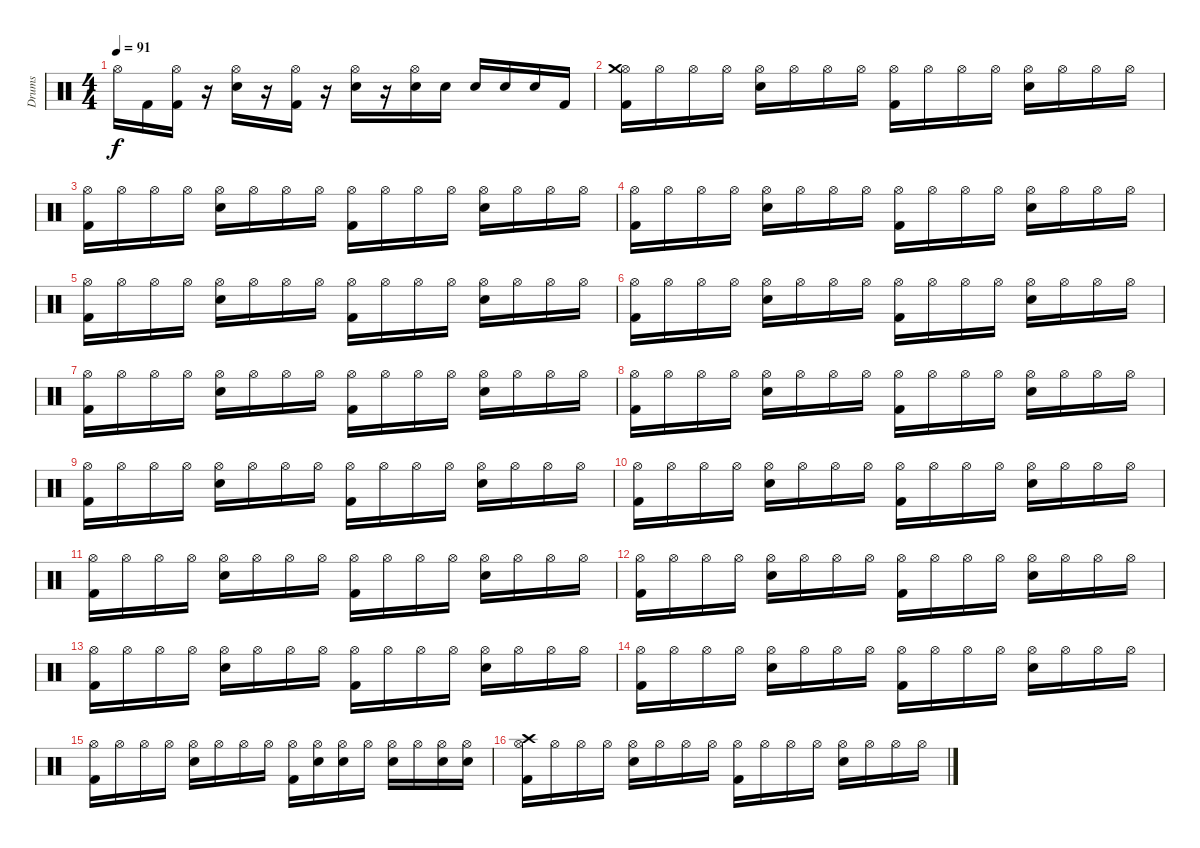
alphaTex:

\track ("Drums" "Drums") {instrument percussion}
\staff {score}
\articulation defaults
\ts (4 4)
\tempo 91
\clef neutral
\ks c "Hi-Hat (open)".16{dy f} "Kick (hit) 2".16
("Hi-Hat (open)" "Kick (hit) 2").16 r.16 ("Hi-Hat (open)" "Snare (hit) 2").16 r.16 ("Kick (hit) 2" "Hi-Hat (open)").16 r.16 ("Snare (hit) 2" "Hi-Hat (open)").16 r.16 ("Snare (hit) 2" "Hi-Hat (open)").16 "Snare (hit) 2".16 "Snare (hit) 2".16 "Snare (hit) 2".16 "Snare (hit) 2".16 "Kick (hit) 2".16 |
("Kick (hit) 2" "Hi-Hat (open)" "Crash medium (hit)").16 "Hi-Hat (open)".16 "Hi-Hat (open)".16 "Hi-Hat (open)".16 ("Hi-Hat (open)" "Snare (hit) 2").16 "Hi-Hat (open)".16 "Hi-Hat (open)".16 "Hi-Hat (open)".16 ("Kick (hit) 2" "Hi-Hat (open)").16 "Hi-Hat (open)".16 "Hi-Hat (open)".16 "Hi-Hat (open)".16 ("Hi-Hat (open)" "Snare (hit) 2").16 "Hi-Hat (open)".16 "Hi-Hat (open)".16 "Hi-Hat (open)".16 |
("Kick (hit) 2" "Hi-Hat (open)").16 "Hi-Hat (open)".16 "Hi-Hat (open)".16 "Hi-Hat (open)".16 ("Hi-Hat (open)" "Snare (hit) 2").16 "Hi-Hat (open)".16 "Hi-Hat (open)".16 "Hi-Hat (open)".16 ("Kick (hit) 2" "Hi-Hat (open)").16 "Hi-Hat (open)".16 "Hi-Hat (open)".16 "Hi-Hat (open)".16 ("Hi-Hat (open)" "Snare (hit) 2").16 "Hi-Hat (open)".16 "Hi-Hat (open)".16 "Hi-Hat (open)".16 |
("Kick (hit) 2" "Hi-Hat (open)").16 "Hi-Hat (open)".16 "Hi-Hat (open)".16 "Hi-Hat (open)".16 ("Snare (hit) 2" "Hi-Hat (open)").16 "Hi-Hat (open)".16 "Hi-Hat (open)".16 "Hi-Hat (open)".16 ("Hi-Hat (open)" "Kick (hit) 2").16 "Hi-Hat (open)".16 "Hi-Hat (open)".16 "Hi-Hat (open)".16 ("Snare (hit) 2" "Hi-Hat (open)").16 "Hi-Hat (open)".16 "Hi-Hat (open)".16 "Hi-Hat (open)".16 |
("Hi-Hat (open)" "Kick (hit) 2").16 "Hi-Hat (open)".16 "Hi-Hat (open)".16 "Hi-Hat (open)".16 ("Snare (hit) 2" "Hi-Hat (open)").16 "Hi-Hat (open)".16 "Hi-Hat (open)".16 "Hi-Hat (open)".16 ("Hi-Hat (open)" "Kick (hit) 2").16 "Hi-Hat (open)".16 "Hi-Hat (open)".16 "Hi-Hat (open)".16 ("Hi-Hat (open)" "Snare (hit) 2").16 "Hi-Hat (open)".16 "Hi-Hat (open)".16 "Hi-Hat (open)".16 |
("Hi-Hat (open)" "Kick (hit) 2").16 "Hi-Hat (open)".16 "Hi-Hat (open)".16 "Hi-Hat (open)".16 ("Snare (hit) 2" "Hi-Hat (open)").16 "Hi-Hat (open)".16 "Hi-Hat (open)".16 "Hi-Hat (open)".16 ("Hi-Hat (open)" "Kick (hit) 2").16 "Hi-Hat (open)".16 "Hi-Hat (open)".16 "Hi-Hat (open)".16 ("Snare (hit) 2" "Hi-Hat (open)").16 "Hi-Hat (open)".16 "Hi-Hat (open)".16 "Hi-Hat (open)".16 |
("Hi-Hat (open)" "Kick (hit) 2").16 "Hi-Hat (open)".16 "Hi-Hat (open)".16 "Hi-Hat (open)".16 ("Snare (hit) 2" "Hi-Hat (open)").16 "Hi-Hat (open)".16 "Hi-Hat (open)".16 "Hi-Hat (open)".16 ("Kick (hit) 2" "Hi-Hat (open)").16 "Hi-Hat (open)".16 "Hi-Hat (open)".16 "Hi-Hat (open)".16 ("Hi-Hat (open)" "Snare (hit) 2").16 "Hi-Hat (open)".16 "Hi-Hat (open)".16 "Hi-Hat (open)".16 |
("Kick (hit) 2" "Hi-Hat (open)").16 "Hi-Hat (open)".16 "Hi-Hat (open)".16 "Hi-Hat (open)".16 ("Hi-Hat (open)" "Snare (hit) 2").16 "Hi-Hat (open)".16 "Hi-Hat (open)".16 "Hi-Hat (open)".16 ("Kick (hit) 2" "Hi-Hat (open)").16 "Hi-Hat (open)".16 "Hi-Hat (open)".16 "Hi-Hat (open)".16 ("Hi-Hat (open)" "Snare (hit) 2").16 "Hi-Hat (open)".16 "Hi-Hat (open)".16 "Hi-Hat (open)".16 |
("Kick (hit) 2" "Hi-Hat (open)").16 "Hi-Hat (open)".16 "Hi-Hat (open)".16 "Hi-Hat (open)".16 ("Hi-Hat (open)" "Snare (hit) 2").16 "Hi-Hat (open)".16 "Hi-Hat (open)".16 "Hi-Hat (open)".16 ("Kick (hit) 2" "Hi-Hat (open)").16 "Hi-Hat (open)".16 "Hi-Hat (open)".16 "Hi-Hat (open)".16 ("Hi-Hat (open)" "Snare (hit) 2").16 "Hi-Hat (open)".16 "Hi-Hat (open)".16 "Hi-Hat (open)".16 |
("Kick (hit) 2" "Hi-Hat (open)").16 "Hi-Hat (open)".16 "Hi-Hat (open)".16 "Hi-Hat (open)".16 ("Hi-Hat (open)" "Snare (hit) 2").16 "Hi-Hat (open)".16 "Hi-Hat (open)".16 "Hi-Hat (open)".16 ("Kick (hit) 2" "Hi-Hat (open)").16 "Hi-Hat (open)".16 "Hi-Hat (open)".16 "Hi-Hat (open)".16 ("Hi-Hat (open)" "Snare (hit) 2").16 "Hi-Hat (open)".16 "Hi-Hat (open)".16 "Hi-Hat (open)".16 |
("Hi-Hat (open)" "Kick (hit) 2").16 "Hi-Hat (open)".16 "Hi-Hat (open)".16 "Hi-Hat (open)".16 ("Snare (hit) 2" "Hi-Hat (open)").16 "Hi-Hat (open)".16 "Hi-Hat (open)".16 "Hi-Hat (open)".16 ("Hi-Hat (open)" "Kick (hit) 2").16 "Hi-Hat (open)".16 "Hi-Hat (open)".16 "Hi-Hat (open)".16 ("Snare (hit) 2" "Hi-Hat (open)").16 "Hi-Hat (open)".16 "Hi-Hat (open)".16 "Hi-Hat (open)".16 |
("Hi-Hat (open)" "Kick (hit) 2").16 "Hi-Hat (open)".16 "Hi-Hat (open)".16 "Hi-Hat (open)".16 ("Snare (hit) 2" "Hi-Hat (open)").16 "Hi-Hat (open)".16 "Hi-Hat (open)".16 "Hi-Hat (open)".16 ("Hi-Hat (open)" "Kick (hit) 2").16 "Hi-Hat (open)".16 "Hi-Hat (open)".16 "Hi-Hat (open)".16 ("Hi-Hat (open)" "Snare (hit) 2").16 "Hi-Hat (open)".16 "Hi-Hat (open)".16 "Hi-Hat (open)".16 |
("Kick (hit) 2" "Hi-Hat (open)").16 "Hi-Hat (open)".16 "Hi-Hat (open)".16 "Hi-Hat (open)".16 ("Hi-Hat (open)" "Snare (hit) 2").16 "Hi-Hat (open)".16 "Hi-Hat (open)".16 "Hi-Hat (open)".16 ("Kick (hit) 2" "Hi-Hat (open)").16 "Hi-Hat (open)".16 "Hi-Hat (open)".16 "Hi-Hat (open)".16 ("Hi-Hat (open)" "Snare (hit) 2").16 "Hi-Hat (open)".16 "Hi-Hat (open)".16 "Hi-Hat (open)".16 |
("Kick (hit) 2" "Hi-Hat (open)").16 "Hi-Hat (open)".16 "Hi-Hat (open)".16 "Hi-Hat (open)".16 ("Snare (hit) 2" "Hi-Hat (open)").16 "Hi-Hat (open)".16 "Hi-Hat (open)".16 "Hi-Hat (open)".16 ("Hi-Hat (open)" "Kick (hit) 2").16 "Hi-Hat (open)".16 "Hi-Hat (open)".16 "Hi-Hat (open)".16 ("Snare (hit) 2" "Hi-Hat (open)").16 "Hi-Hat (open)".16 "Hi-Hat (open)".16 "Hi-Hat (open)".16 |
("Hi-Hat (open)" "Kick (hit) 2").16 "Hi-Hat (open)".16 "Hi-Hat (open)".16 "Hi-Hat (open)".16 ("Snare (hit) 2" "Hi-Hat (open)").16 "Hi-Hat (open)".16 "Hi-Hat (open)".16 "Hi-Hat (open)".16 ("Hi-Hat (open)" "Kick (hit) 2").16 ("Hi-Hat (open)" "Snare (hit) 2").16 ("Hi-Hat (open)" "Snare (hit) 2").16 "Hi-Hat (open)".16 ("Hi-Hat (open)" "Snare (hit) 2").16 "Hi-Hat (open)".16 ("Hi-Hat (open)" "Snare (hit) 2").16 ("Hi-Hat (open)" "Snare (hit) 2").16 |
("Crash high (hit)" "Kick (hit) 2" "Hi-Hat (open)").16 "Hi-Hat (open)".16 "Hi-Hat (open)".16 "Hi-Hat (open)".16 ("Snare (hit) 2" "Hi-Hat (open)").16 "Hi-Hat (open)".16 "Hi-Hat (open)".16 "Hi-Hat (open)".16 ("Kick (hit) 2" "Hi-Hat (open)").16 "Hi-Hat (open)".16 "Hi-Hat (open)".16 "Hi-Hat (open)".16 ("Snare (hit) 2" "Hi-Hat (open)").16 "Hi-Hat (open)".16 "Hi-Hat (open)".16 "Hi-Hat (open)".16
